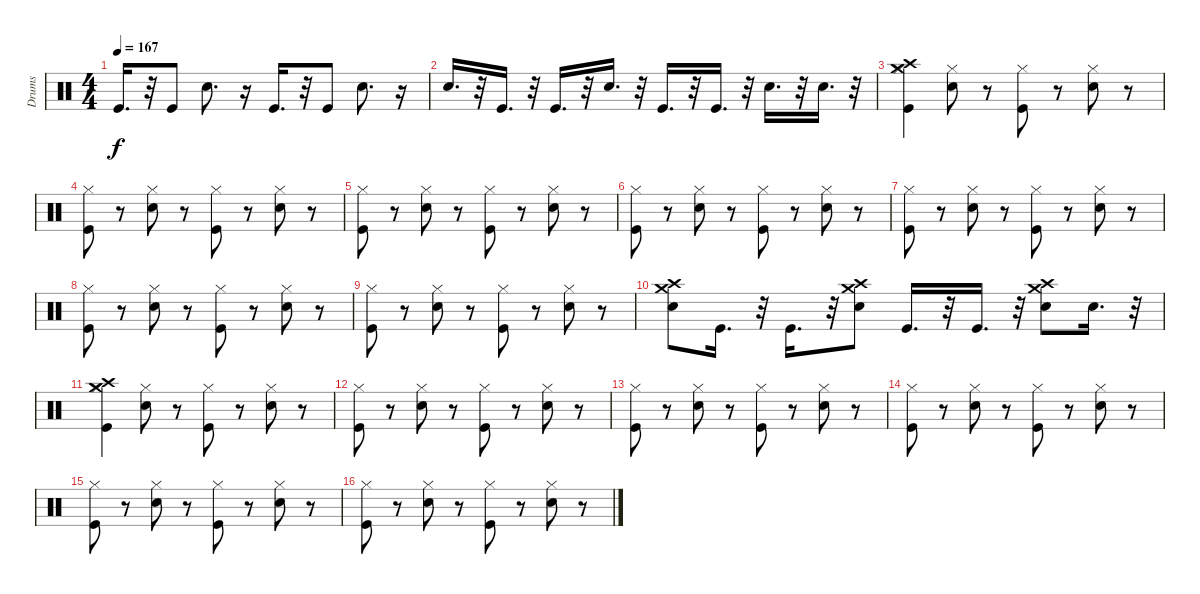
\track ("Drums" "Drums") {instrument percussion}
\staff {score}
\articulation defaults
\ts (4 4)
\tempo 167
\clef neutral
\ks c "Kick (hit)".16{d dy f}
r.32 "Kick (hit)".8 "Electric Snare (hit)".8{d} r.16 "Kick (hit)".16{d} r.32 "Kick (hit)".8 "Electric Snare (hit)".8{d} r.16 |
"Electric Snare (hit)".16{d} r.32 "Kick (hit)".16{d} r.32 "Kick (hit)".16{d} r.32 "Electric Snare (hit)".16{d} r.32 "Kick (hit)".16{d} r.32 "Kick (hit)".16{d} r.32 "Electric Snare (hit)".16{d} r.32 "Electric Snare (hit)".16{d} r.32 |
("Crash medium (hit)" "Kick (hit)" "Hi-Hat (closed)" "Crash high (hit)").4 ("Hi-Hat (closed)" "Electric Snare (hit)").8 r.8 ("Hi-Hat (closed)" "Kick (hit)").8 r.8 ("Electric Snare (hit)" "Hi-Hat (closed)").8 r.8 |
("Kick (hit)" "Hi-Hat (closed)").8 r.8 ("Electric Snare (hit)" "Hi-Hat (closed)").8 r.8 ("Hi-Hat (closed)" "Kick (hit)").8 r.8 ("Hi-Hat (closed)" "Electric Snare (hit)").8 r.8 |
("Hi-Hat (closed)" "Kick (hit)").8 r.8 ("Hi-Hat (closed)" "Electric Snare (hit)").8 r.8 ("Hi-Hat (closed)" "Kick (hit)").8 r.8 ("Hi-Hat (closed)" "Electric Snare (hit)").8 r.8 |
("Hi-Hat (closed)" "Kick (hit)").8 r.8 ("Electric Snare (hit)" "Hi-Hat (closed)").8 r.8 ("Hi-Hat (closed)" "Kick (hit)").8 r.8 ("Hi-Hat (closed)" "Electric Snare (hit)").8 r.8 |
("Hi-Hat (closed)" "Kick (hit)").8 r.8 ("Hi-Hat (closed)" "Electric Snare (hit)").8 r.8 ("Hi-Hat (closed)" "Kick (hit)").8 r.8 ("Hi-Hat (closed)" "Electric Snare (hit)").8 r.8 |
("Kick (hit)" "Hi-Hat (closed)").8 r.8 ("Hi-Hat (closed)" "Electric Snare (hit)").8 r.8 ("Kick (hit)" "Hi-Hat (closed)").8 r.8 ("Electric Snare (hit)" "Hi-Hat (closed)").8 r.8 |
("Hi-Hat (closed)" "Kick (hit)").8 r.8 ("Hi-Hat (closed)" "Electric Snare (hit)").8 r.8 ("Hi-Hat (closed)" "Kick (hit)").8 r.8 ("Hi-Hat (closed)" "Electric Snare (hit)").8 r.8 |
("Crash high (hit)" "Crash medium (hit)" "Electric Snare (hit)").8 "Kick (hit)".16{d} r.32 "Kick (hit)".16{d} r.32 ("Crash high (hit)" "Crash medium (hit)" "Electric Snare (hit)").8 "Kick (hit)".16{d} r.32 "Kick (hit)".16{d} r.32 ("Electric Snare (hit)" "Crash high (hit)" "Crash medium (hit)").8 "Electric Snare (hit)".16{d} r.32 |
("Hi-Hat (closed)" "Crash high (hit)" "Crash medium (hit)" "Kick (hit)").4 ("Electric Snare (hit)" "Hi-Hat (closed)").8 r.8 ("Kick (hit)" "Hi-Hat (closed)").8 r.8 ("Hi-Hat (closed)" "Electric Snare (hit)").8 r.8 |
("Hi-Hat (closed)" "Kick (hit)").8 r.8 ("Hi-Hat (closed)" "Electric Snare (hit)").8 r.8 ("Hi-Hat (closed)" "Kick (hit)").8 r.8 ("Hi-Hat (closed)" "Electric Snare (hit)").8 r.8 |
("Hi-Hat (closed)" "Kick (hit)").8 r.8 ("Hi-Hat (closed)" "Electric Snare (hit)").8 r.8 ("Hi-Hat (closed)" "Kick (hit)").8 r.8 ("Electric Snare (hit)" "Hi-Hat (closed)").8 r.8 |
("Hi-Hat (closed)" "Kick (hit)").8 r.8 ("Hi-Hat (closed)" "Electric Snare (hit)").8 r.8 ("Hi-Hat (closed)" "Kick (hit)").8 r.8 ("Hi-Hat (closed)" "Electric Snare (hit)").8 r.8 |
("Hi-Hat (closed)" "Kick (hit)").8 r.8 ("Hi-Hat (closed)" "Electric Snare (hit)").8 r.8 ("Hi-Hat (closed)" "Kick (hit)").8 r.8 ("Hi-Hat (closed)" "Electric Snare (hit)").8 r.8 |
("Kick (hit)" "Hi-Hat (closed)").8 r.8 ("Hi-Hat (closed)" "Electric Snare (hit)").8 r.8 ("Hi-Hat (closed)" "Kick (hit)").8 r.8 ("Hi-Hat (closed)" "Electric Snare (hit)").8 r.8
